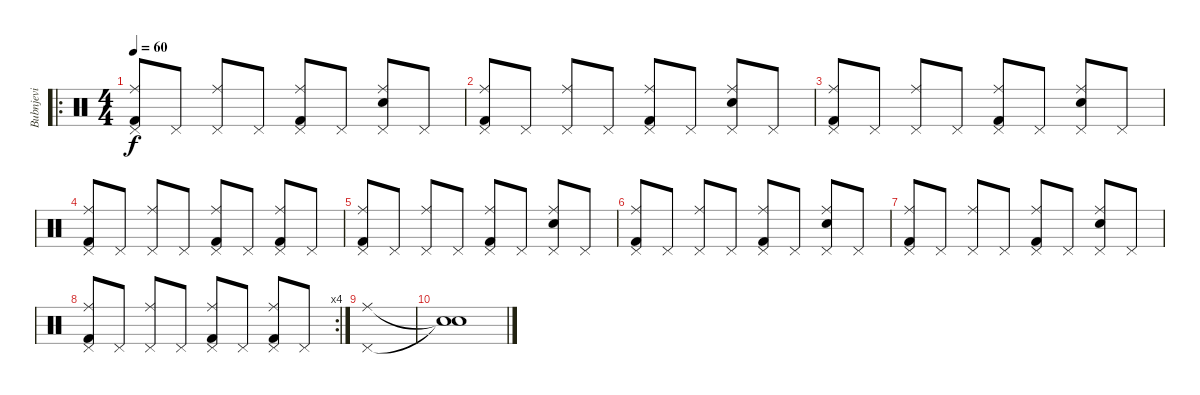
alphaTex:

\track ("Bubnjevi" "Bubnjevi") {instrument percussion}
\staff {score}
\articulation defaults
\ro
\ts (4 4)
\tempo 60
\clef neutral
\ks c
("Ride (middle)" "Pedal Hi-Hat (hit)" "Kick (hit) 2").8{dy f} "Pedal Hi-Hat (hit)".8 ("Ride (middle)" "Pedal Hi-Hat (hit)").8 "Pedal Hi-Hat (hit)".8 ("Ride (middle)" "Pedal Hi-Hat (hit)" "Kick (hit) 2").8 "Pedal Hi-Hat (hit)".8 ("Ride (middle)" "Pedal Hi-Hat (hit)" "Snare (hit) 2").8 "Pedal Hi-Hat (hit)".8 |
("Ride (middle)" "Pedal Hi-Hat (hit)" "Kick (hit) 2").8 "Pedal Hi-Hat (hit)".8 ("Ride (middle)" "Pedal Hi-Hat (hit)").8 "Pedal Hi-Hat (hit)".8 ("Ride (middle)" "Pedal Hi-Hat (hit)" "Kick (hit) 2").8 "Pedal Hi-Hat (hit)".8 ("Ride (middle)" "Pedal Hi-Hat (hit)" "Snare (hit) 2").8 "Pedal Hi-Hat (hit)".8 |
("Ride (middle)" "Pedal Hi-Hat (hit)" "Kick (hit) 2").8 "Pedal Hi-Hat (hit)".8 ("Ride (middle)" "Pedal Hi-Hat (hit)").8 "Pedal Hi-Hat (hit)".8 ("Ride (middle)" "Pedal Hi-Hat (hit)" "Kick (hit) 2").8 "Pedal Hi-Hat (hit)".8 ("Ride (middle)" "Pedal Hi-Hat (hit)" "Snare (hit) 2").8 "Pedal Hi-Hat (hit)".8 |
("Ride (middle)" "Pedal Hi-Hat (hit)" "Kick (hit) 2").8 "Pedal Hi-Hat (hit)".8 ("Ride (middle)" "Pedal Hi-Hat (hit)").8 "Pedal Hi-Hat (hit)".8 ("Ride (middle)" "Pedal Hi-Hat (hit)" "Kick (hit) 2").8 "Pedal Hi-Hat (hit)".8 ("Ride (middle)" "Pedal Hi-Hat (hit)" "Kick (hit) 2").8 "Pedal Hi-Hat (hit)".8 |
("Ride (middle)" "Pedal Hi-Hat (hit)" "Kick (hit) 2").8 "Pedal Hi-Hat (hit)".8 ("Ride (middle)" "Pedal Hi-Hat (hit)").8 "Pedal Hi-Hat (hit)".8 ("Ride (middle)" "Pedal Hi-Hat (hit)" "Kick (hit) 2").8 "Pedal Hi-Hat (hit)".8 ("Ride (middle)" "Pedal Hi-Hat (hit)" "Snare (hit) 2").8 "Pedal Hi-Hat (hit)".8 |
("Ride (middle)" "Pedal Hi-Hat (hit)" "Kick (hit) 2").8 "Pedal Hi-Hat (hit)".8 ("Ride (middle)" "Pedal Hi-Hat (hit)").8 "Pedal Hi-Hat (hit)".8 ("Ride (middle)" "Pedal Hi-Hat (hit)" "Kick (hit) 2").8 "Pedal Hi-Hat (hit)".8 ("Ride (middle)" "Pedal Hi-Hat (hit)" "Snare (hit) 2").8 "Pedal Hi-Hat (hit)".8 |
("Ride (middle)" "Pedal Hi-Hat (hit)" "Kick (hit) 2").8 "Pedal Hi-Hat (hit)".8 ("Ride (middle)" "Pedal Hi-Hat (hit)").8 "Pedal Hi-Hat (hit)".8 ("Ride (middle)" "Pedal Hi-Hat (hit)" "Kick (hit) 2").8 "Pedal Hi-Hat (hit)".8 ("Ride (middle)" "Pedal Hi-Hat (hit)" "Snare (hit) 2").8 "Pedal Hi-Hat (hit)".8 |
\rc 4
("Ride (middle)" "Pedal Hi-Hat (hit)" "Kick (hit) 2").8 "Pedal Hi-Hat (hit)".8 ("Ride (middle)" "Pedal Hi-Hat (hit)").8 "Pedal Hi-Hat (hit)".8 ("Ride (middle)" "Pedal Hi-Hat (hit)" "Kick (hit) 2").8 "Pedal Hi-Hat (hit)".8 ("Ride (middle)" "Pedal Hi-Hat (hit)" "Kick (hit) 2").8 "Pedal Hi-Hat (hit)".8 |
("Ride (middle)" "Pedal Hi-Hat (hit)").1 |
("Snare (hit)"{t} "Snare (hit)"{t}).1
